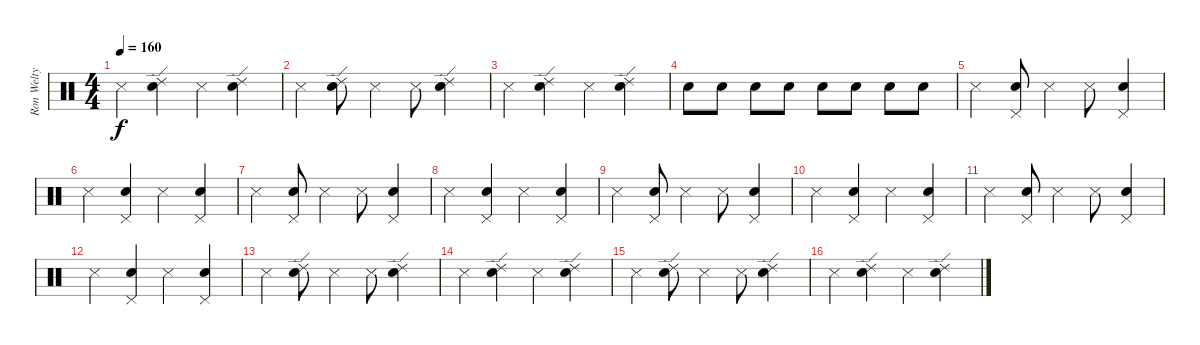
\track ("Ron Welty" "Ron Welty") {instrument percussion}
\staff {score}
\articulation defaults
\ts (4 4)
\tempo 160
\clef neutral
\ks c "Metronome (hit)".4{dy f}
("Ride (edge) 2" "Snare (hit) 2").4 "Metronome (hit)".4 ("Ride (edge) 2" "Snare (hit) 2").4 |
"Metronome (hit)".4 ("Ride (edge) 2" "Snare (hit) 2").8 "Metronome (hit)".4 "Metronome (hit)".8 ("Ride (edge) 2" "Snare (hit) 2").4 |
"Metronome (hit)".4 ("Ride (edge) 2" "Snare (hit) 2").4 "Metronome (hit)".4 ("Ride (edge) 2" "Snare (hit) 2").4 |
"Snare (hit) 2".8 "Snare (hit) 2".8 "Snare (hit) 2".8 "Snare (hit) 2".8 "Snare (hit) 2".8 "Snare (hit) 2".8 "Snare (hit) 2".8 "Snare (hit) 2".8 |
"Metronome (hit)".4 ("Pedal Hi-Hat (hit)" "Snare (hit) 2").8 "Metronome (hit)".4 "Metronome (hit)".8 ("Pedal Hi-Hat (hit)" "Snare (hit) 2").4 |
"Metronome (hit)".4 ("Pedal Hi-Hat (hit)" "Snare (hit) 2").4 "Metronome (hit)".4 ("Pedal Hi-Hat (hit)" "Snare (hit) 2").4 |
"Metronome (hit)".4 ("Pedal Hi-Hat (hit)" "Snare (hit) 2").8 "Metronome (hit)".4 "Metronome (hit)".8 ("Pedal Hi-Hat (hit)" "Snare (hit) 2").4 |
"Metronome (hit)".4 ("Pedal Hi-Hat (hit)" "Snare (hit) 2").4 "Metronome (hit)".4 ("Pedal Hi-Hat (hit)" "Snare (hit) 2").4 |
"Metronome (hit)".4 ("Pedal Hi-Hat (hit)" "Snare (hit) 2").8 "Metronome (hit)".4 "Metronome (hit)".8 ("Pedal Hi-Hat (hit)" "Snare (hit) 2").4 |
"Metronome (hit)".4 ("Pedal Hi-Hat (hit)" "Snare (hit) 2").4 "Metronome (hit)".4 ("Pedal Hi-Hat (hit)" "Snare (hit) 2").4 |
"Metronome (hit)".4 ("Pedal Hi-Hat (hit)" "Snare (hit) 2").8 "Metronome (hit)".4 "Metronome (hit)".8 ("Pedal Hi-Hat (hit)" "Snare (hit) 2").4 |
"Metronome (hit)".4 ("Pedal Hi-Hat (hit)" "Snare (hit) 2").4 "Metronome (hit)".4 ("Pedal Hi-Hat (hit)" "Snare (hit) 2").4 |
"Metronome (hit)".4 ("Ride (edge) 2" "Snare (hit) 2").8 "Metronome (hit)".4 "Metronome (hit)".8 ("Ride (edge) 2" "Snare (hit) 2").4 |
"Metronome (hit)".4 ("Ride (edge) 2" "Snare (hit) 2").4 "Metronome (hit)".4 ("Ride (edge) 2" "Snare (hit) 2").4 |
"Metronome (hit)".4 ("Ride (edge) 2" "Snare (hit) 2").8 "Metronome (hit)".4 "Metronome (hit)".8 ("Ride (edge) 2" "Snare (hit) 2").4 |
"Metronome (hit)".4 ("Ride (edge) 2" "Snare (hit) 2").4 "Metronome (hit)".4 ("Ride (edge) 2" "Snare (hit) 2").4
